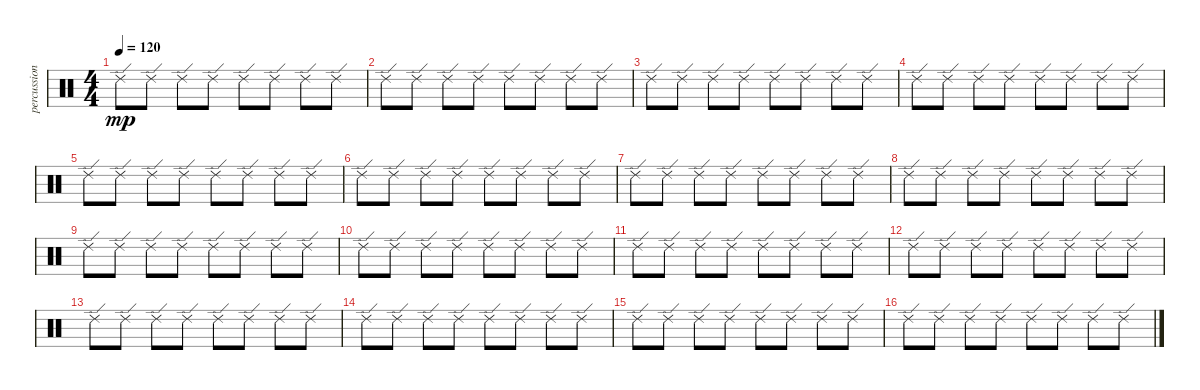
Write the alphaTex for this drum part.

\track ("percussion" "percussion") {instrument percussion}
\staff {score}
\articulation defaults
\ts (4 4)
\tempo 120
\clef neutral
\ks c "Ride (edge) 2".8{dy mp} "Ride (edge) 2".8 "Ride (edge) 2".8 "Ride (edge) 2".8 "Ride (edge) 2".8 "Ride (edge) 2".8 "Ride (edge) 2".8 "Ride (edge) 2".8
|
"Ride (edge) 2".8 "Ride (edge) 2".8 "Ride (edge) 2".8 "Ride (edge) 2".8 "Ride (edge) 2".8 "Ride (edge) 2".8 "Ride (edge) 2".8 "Ride (edge) 2".8 |
"Ride (edge) 2".8 "Ride (edge) 2".8 "Ride (edge) 2".8 "Ride (edge) 2".8 "Ride (edge) 2".8 "Ride (edge) 2".8 "Ride (edge) 2".8 "Ride (edge) 2".8 |
"Ride (edge) 2".8 "Ride (edge) 2".8 "Ride (edge) 2".8 "Ride (edge) 2".8 "Ride (edge) 2".8 "Ride (edge) 2".8 "Ride (edge) 2".8 "Ride (edge) 2".8 |
"Ride (edge) 2".8 "Ride (edge) 2".8 "Ride (edge) 2".8 "Ride (edge) 2".8 "Ride (edge) 2".8 "Ride (edge) 2".8 "Ride (edge) 2".8 "Ride (edge) 2".8 |
"Ride (edge) 2".8 "Ride (edge) 2".8 "Ride (edge) 2".8 "Ride (edge) 2".8 "Ride (edge) 2".8 "Ride (edge) 2".8 "Ride (edge) 2".8 "Ride (edge) 2".8 |
"Ride (edge) 2".8 "Ride (edge) 2".8 "Ride (edge) 2".8 "Ride (edge) 2".8 "Ride (edge) 2".8 "Ride (edge) 2".8 "Ride (edge) 2".8 "Ride (edge) 2".8 |
"Ride (edge) 2".8 "Ride (edge) 2".8 "Ride (edge) 2".8 "Ride (edge) 2".8 "Ride (edge) 2".8 "Ride (edge) 2".8 "Ride (edge) 2".8 "Ride (edge) 2".8 |
"Ride (edge) 2".8 "Ride (edge) 2".8 "Ride (edge) 2".8 "Ride (edge) 2".8 "Ride (edge) 2".8 "Ride (edge) 2".8 "Ride (edge) 2".8 "Ride (edge) 2".8 |
"Ride (edge) 2".8 "Ride (edge) 2".8 "Ride (edge) 2".8 "Ride (edge) 2".8 "Ride (edge) 2".8 "Ride (edge) 2".8 "Ride (edge) 2".8 "Ride (edge) 2".8 |
"Ride (edge) 2".8 "Ride (edge) 2".8 "Ride (edge) 2".8 "Ride (edge) 2".8 "Ride (edge) 2".8 "Ride (edge) 2".8 "Ride (edge) 2".8 "Ride (edge) 2".8 |
"Ride (edge) 2".8 "Ride (edge) 2".8 "Ride (edge) 2".8 "Ride (edge) 2".8 "Ride (edge) 2".8 "Ride (edge) 2".8 "Ride (edge) 2".8 "Ride (edge) 2".8 |
"Ride (edge) 2".8 "Ride (edge) 2".8 "Ride (edge) 2".8 "Ride (edge) 2".8 "Ride (edge) 2".8 "Ride (edge) 2".8 "Ride (edge) 2".8 "Ride (edge) 2".8 |
"Ride (edge) 2".8 "Ride (edge) 2".8 "Ride (edge) 2".8 "Ride (edge) 2".8 "Ride (edge) 2".8 "Ride (edge) 2".8 "Ride (edge) 2".8 "Ride (edge) 2".8 |
"Ride (edge) 2".8 "Ride (edge) 2".8 "Ride (edge) 2".8 "Ride (edge) 2".8 "Ride (edge) 2".8 "Ride (edge) 2".8 "Ride (edge) 2".8 "Ride (edge) 2".8 |
"Ride (edge) 2".8 "Ride (edge) 2".8 "Ride (edge) 2".8 "Ride (edge) 2".8 "Ride (edge) 2".8 "Ride (edge) 2".8 "Ride (edge) 2".8 "Ride (edge) 2".8
